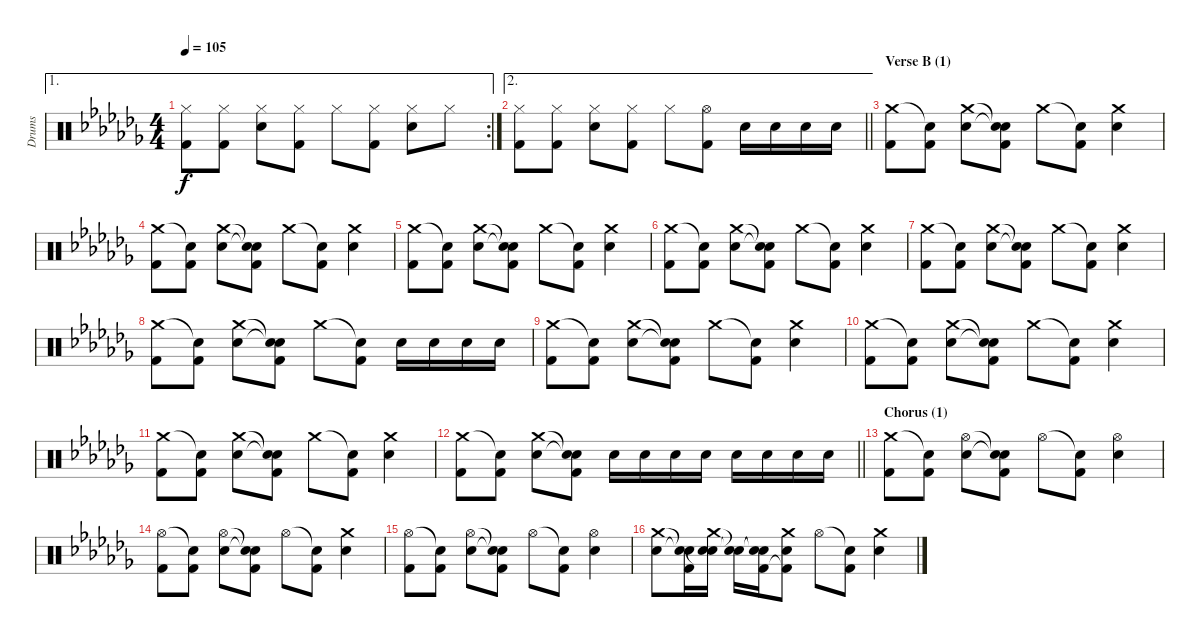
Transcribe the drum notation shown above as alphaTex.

\track ("Drums" "Drums") {instrument percussion}
\staff {score}
\articulation defaults
\ae 1
\rc 2
\ts (4 4)
\tempo 105
\clef neutral
\ks abminor
("Hi-Hat (closed)" "Kick (hit) 2").8{dy f} ("Hi-Hat (closed)" "Kick (hit) 2").8 ("Hi-Hat (closed)" "Electric Snare (hit)").8 ("Hi-Hat (closed)" "Kick (hit) 2").8 "Hi-Hat (closed)".8 ("Hi-Hat (closed)" "Kick (hit) 2").8 ("Hi-Hat (closed)" "Electric Snare (hit)").8 "Hi-Hat (closed)".8 |
\ae 2
\barLineRight lightlight
("Hi-Hat (closed)" "Kick (hit) 2").8 ("Hi-Hat (closed)" "Kick (hit) 2").8 ("Hi-Hat (closed)" "Electric Snare (hit)").8 ("Hi-Hat (closed)" "Kick (hit) 2").8 "Hi-Hat (closed)".8 ("Hi-Hat (open)" "Kick (hit) 2").8 "Electric Snare (hit)".16 "Electric Snare (hit)".16 "Electric Snare (hit)".16 "Electric Snare (hit)".16 |
\section ("" "Verse B (1)")
("Crash medium (hit)" "Kick (hit) 2").8 ("Snare (hit)"{t} "Kick (hit) 2").8 ("Crash medium (hit)" "Electric Snare (hit)").8 ("Snare (hit)"{t} "Snare (hit)"{t} "Kick (hit) 2").8 "Crash medium (hit)".8 ("Snare (hit)"{t} "Kick (hit) 2").8 ("Crash medium (hit)" "Electric Snare (hit)").4 |
("Crash medium (hit)" "Kick (hit) 2").8 ("Snare (hit)"{t} "Kick (hit) 2").8 ("Crash medium (hit)" "Electric Snare (hit)").8 ("Snare (hit)"{t} "Snare (hit)"{t} "Kick (hit) 2").8 "Crash medium (hit)".8 ("Snare (hit)"{t} "Kick (hit) 2").8 ("Crash medium (hit)" "Electric Snare (hit)").4 |
("Crash medium (hit)" "Kick (hit) 2").8 ("Snare (hit)"{t} "Kick (hit) 2").8 ("Crash medium (hit)" "Electric Snare (hit)").8 ("Snare (hit)"{t} "Snare (hit)"{t} "Kick (hit) 2").8 "Crash medium (hit)".8 ("Snare (hit)"{t} "Kick (hit) 2").8 ("Crash medium (hit)" "Electric Snare (hit)").4 |
("Crash medium (hit)" "Kick (hit) 2").8 ("Snare (hit)"{t} "Kick (hit) 2").8 ("Crash medium (hit)" "Electric Snare (hit)").8 ("Snare (hit)"{t} "Snare (hit)"{t} "Kick (hit) 2").8 "Crash medium (hit)".8 ("Snare (hit)"{t} "Kick (hit) 2").8 ("Crash medium (hit)" "Electric Snare (hit)").4 |
("Crash medium (hit)" "Kick (hit) 2").8 ("Snare (hit)"{t} "Kick (hit) 2").8 ("Crash medium (hit)" "Electric Snare (hit)").8 ("Snare (hit)"{t} "Snare (hit)"{t} "Kick (hit) 2").8 "Crash medium (hit)".8 ("Snare (hit)"{t} "Kick (hit) 2").8 ("Crash medium (hit)" "Electric Snare (hit)").4 |
("Crash medium (hit)" "Kick (hit) 2").8 ("Snare (hit)"{t} "Kick (hit) 2").8 ("Crash medium (hit)" "Electric Snare (hit)").8 ("Snare (hit)"{t} "Snare (hit)"{t} "Kick (hit) 2").8 "Crash medium (hit)".8 ("Snare (hit)"{t} "Kick (hit) 2").8 "Electric Snare (hit)".16 "Electric Snare (hit)".16 "Electric Snare (hit)".16 "Electric Snare (hit)".16 |
("Crash medium (hit)" "Kick (hit) 2").8 ("Snare (hit)"{t} "Kick (hit) 2").8 ("Crash medium (hit)" "Electric Snare (hit)").8 ("Snare (hit)"{t} "Snare (hit)"{t} "Kick (hit) 2").8 "Crash medium (hit)".8 ("Snare (hit)"{t} "Kick (hit) 2").8 ("Crash medium (hit)" "Electric Snare (hit)").4 |
("Crash medium (hit)" "Kick (hit) 2").8 ("Snare (hit)"{t} "Kick (hit) 2").8 ("Crash medium (hit)" "Electric Snare (hit)").8 ("Snare (hit)"{t} "Snare (hit)"{t} "Kick (hit) 2").8 "Crash medium (hit)".8 ("Snare (hit)"{t} "Kick (hit) 2").8 ("Crash medium (hit)" "Electric Snare (hit)").4 |
("Crash medium (hit)" "Kick (hit) 2").8 ("Snare (hit)"{t} "Kick (hit) 2").8 ("Crash medium (hit)" "Electric Snare (hit)").8 ("Snare (hit)"{t} "Snare (hit)"{t} "Kick (hit) 2").8 "Crash medium (hit)".8 ("Snare (hit)"{t} "Kick (hit) 2").8 ("Crash medium (hit)" "Electric Snare (hit)").4 |
\barLineRight lightlight
("Crash medium (hit)" "Kick (hit) 2").8 ("Snare (hit)"{t} "Kick (hit) 2").8 ("Crash medium (hit)" "Electric Snare (hit)").8 ("Snare (hit)"{t} "Snare (hit)"{t} "Kick (hit) 2").8 "Electric Snare (hit)".16 "Electric Snare (hit)".16 "Electric Snare (hit)".16 "Electric Snare (hit)".16 "Electric Snare (hit)".16 "Electric Snare (hit)".16 "Electric Snare (hit)".16 "Electric Snare (hit)".16 |
\section ("" "Chorus (1)")
("Crash medium (hit)" "Kick (hit) 2").8 ("Snare (hit)"{t} "Kick (hit) 2").8 ("Hi-Hat (open)" "Electric Snare (hit)").8 ("Snare (hit)"{t} "Snare (hit)"{t} "Kick (hit) 2").8 "Hi-Hat (open)".8 ("Snare (hit)"{t} "Kick (hit) 2").8 ("Hi-Hat (open)" "Electric Snare (hit)").4 |
("Hi-Hat (open)" "Kick (hit) 2").8 ("Snare (hit)"{t} "Kick (hit) 2").8 ("Hi-Hat (open)" "Electric Snare (hit)").8 ("Snare (hit)"{t} "Snare (hit)"{t} "Kick (hit) 2").8 "Hi-Hat (open)".8 ("Snare (hit)"{t} "Kick (hit) 2").8 ("Crash medium (hit)" "Electric Snare (hit)").4 |
("Hi-Hat (open)" "Kick (hit) 2").8 ("Snare (hit)"{t} "Kick (hit) 2").8 ("Hi-Hat (open)" "Electric Snare (hit)").8 ("Snare (hit)"{t} "Snare (hit)"{t} "Kick (hit) 2").8 "Hi-Hat (open)".8 ("Snare (hit)"{t} "Kick (hit) 2").8 ("Hi-Hat (open)" "Electric Snare (hit)").4 |
("Crash medium (hit)" "Electric Snare (hit)").8 ("Snare (hit)"{t} "Snare (hit)"{t} "Kick (hit) 2").16 ("Crash medium (hit)" "Electric Snare (hit)" "Snare (hit)"{t}).16 ("Snare (hit)"{t} "Snare (hit)"{t}).16 ("Snare (hit)"{t} "Snare (hit)"{t} "Kick (hit) 2").16 ("Crash medium (hit)" "Electric Snare (hit)" "Kick (hit) 2"{t}).8 "Hi-Hat (open)".8 ("Snare (hit)"{t} "Kick (hit) 2").8 ("Crash medium (hit)" "Electric Snare (hit)").4
